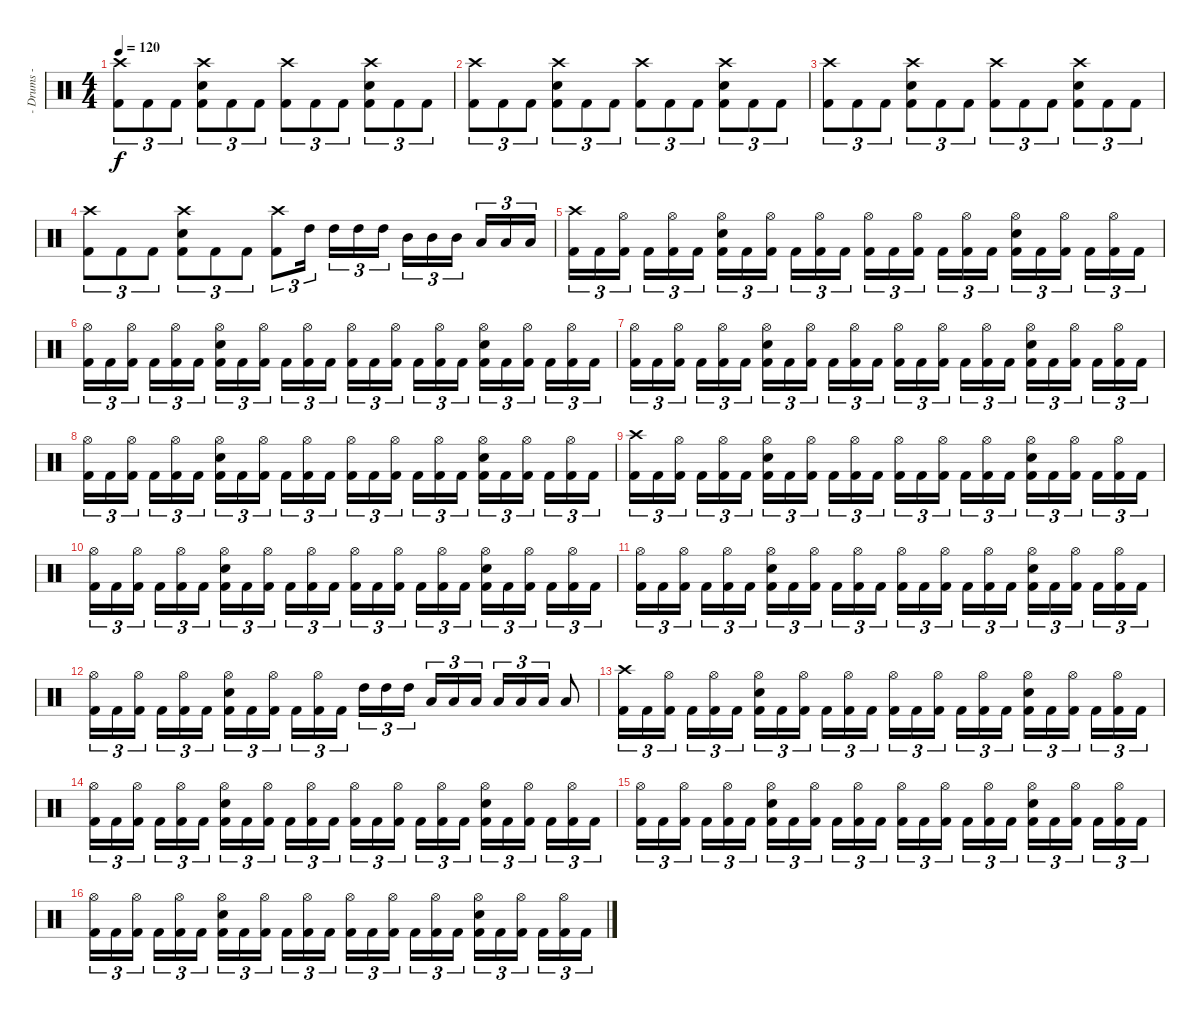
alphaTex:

\track ("- Drums -" "- Drums -") {instrument percussion}
\staff {score}
\articulation defaults
\ts (4 4)
\tempo 120
\clef neutral
\ks c
("Crash high (hit)" "Kick (hit) 2").8{tu (3 2) dy f} "Kick (hit) 2".8{tu (3 2)} "Kick (hit) 2".8{tu (3 2)} ("Crash high (hit)" "Electric Snare (hit)" "Kick (hit) 2").8{tu (3 2)} "Kick (hit) 2".8{tu (3 2)} "Kick (hit) 2".8{tu (3 2)} ("Crash high (hit)" "Kick (hit) 2").8{tu (3 2)} "Kick (hit) 2".8{tu (3 2)} "Kick (hit) 2".8{tu (3 2)} ("Crash high (hit)" "Electric Snare (hit)" "Kick (hit) 2").8{tu (3 2)} "Kick (hit) 2".8{tu (3 2)} "Kick (hit) 2".8{tu (3 2)} |
("Crash high (hit)" "Kick (hit) 2").8{tu (3 2)} "Kick (hit) 2".8{tu (3 2)} "Kick (hit) 2".8{tu (3 2)} ("Crash high (hit)" "Electric Snare (hit)" "Kick (hit) 2").8{tu (3 2)} "Kick (hit) 2".8{tu (3 2)} "Kick (hit) 2".8{tu (3 2)} ("Crash high (hit)" "Kick (hit) 2").8{tu (3 2)} "Kick (hit) 2".8{tu (3 2)} "Kick (hit) 2".8{tu (3 2)} ("Crash high (hit)" "Electric Snare (hit)" "Kick (hit) 2").8{tu (3 2)} "Kick (hit) 2".8{tu (3 2)} "Kick (hit) 2".8{tu (3 2)} |
("Crash high (hit)" "Kick (hit) 2").8{tu (3 2)} "Kick (hit) 2".8{tu (3 2)} "Kick (hit) 2".8{tu (3 2)} ("Crash high (hit)" "Electric Snare (hit)" "Kick (hit) 2").8{tu (3 2)} "Kick (hit) 2".8{tu (3 2)} "Kick (hit) 2".8{tu (3 2)} ("Crash high (hit)" "Kick (hit) 2").8{tu (3 2)} "Kick (hit) 2".8{tu (3 2)} "Kick (hit) 2".8{tu (3 2)} ("Crash high (hit)" "Electric Snare (hit)" "Kick (hit) 2").8{tu (3 2)} "Kick (hit) 2".8{tu (3 2)} "Kick (hit) 2".8{tu (3 2)} |
("Crash high (hit)" "Kick (hit) 2").8{tu (3 2)} "Kick (hit) 2".8{tu (3 2)} "Kick (hit) 2".8{tu (3 2)} ("Crash high (hit)" "Electric Snare (hit)" "Kick (hit) 2").8{tu (3 2)} "Kick (hit) 2".8{tu (3 2)} "Kick (hit) 2".8{tu (3 2)} ("Crash high (hit)" "Kick (hit) 2").8{tu (3 2)} "High Tom (hit)".16{tu (3 2)} "High Tom (hit)".16{tu (3 2)} "High Tom (hit)".16{tu (3 2)} "High Tom (hit)".16{tu (3 2)} "Mid Tom (hit)".16{tu (3 2)} "Mid Tom (hit)".16{tu (3 2)} "Mid Tom (hit)".16{tu (3 2)} "Low Tom (hit)".16{tu (3 2)} "Low Tom (hit)".16{tu (3 2)} "Low Tom (hit)".16{tu (3 2)} |
("Crash high (hit)" "Kick (hit) 2").16{tu (3 2)} "Kick (hit) 2".16{tu (3 2)} ("Hi-Hat (open)" "Kick (hit) 2").16{tu (3 2)} "Kick (hit) 2".16{tu (3 2)} ("Hi-Hat (open)" "Kick (hit) 2").16{tu (3 2)} "Kick (hit) 2".16{tu (3 2)} ("Hi-Hat (open)" "Electric Snare (hit)" "Kick (hit) 2").16{tu (3 2)} "Kick (hit) 2".16{tu (3 2)} ("Hi-Hat (open)" "Kick (hit) 2").16{tu (3 2)} "Kick (hit) 2".16{tu (3 2)} ("Hi-Hat (open)" "Kick (hit) 2").16{tu (3 2)} "Kick (hit) 2".16{tu (3 2)} ("Hi-Hat (open)" "Kick (hit) 2").16{tu (3 2)} "Kick (hit) 2".16{tu (3 2)} ("Hi-Hat (open)" "Kick (hit) 2").16{tu (3 2)} "Kick (hit) 2".16{tu (3 2)} ("Hi-Hat (open)" "Kick (hit) 2").16{tu (3 2)} "Kick (hit) 2".16{tu (3 2)} ("Hi-Hat (open)" "Electric Snare (hit)" "Kick (hit) 2").16{tu (3 2)} "Kick (hit) 2".16{tu (3 2)} ("Hi-Hat (open)" "Kick (hit) 2").16{tu (3 2)} "Kick (hit) 2".16{tu (3 2)} ("Hi-Hat (open)" "Kick (hit) 2").16{tu (3 2)} "Kick (hit) 2".16{tu (3 2)} |
("Hi-Hat (open)" "Kick (hit) 2").16{tu (3 2)} "Kick (hit) 2".16{tu (3 2)} ("Hi-Hat (open)" "Kick (hit) 2").16{tu (3 2)} "Kick (hit) 2".16{tu (3 2)} ("Hi-Hat (open)" "Kick (hit) 2").16{tu (3 2)} "Kick (hit) 2".16{tu (3 2)} ("Hi-Hat (open)" "Electric Snare (hit)" "Kick (hit) 2").16{tu (3 2)} "Kick (hit) 2".16{tu (3 2)} ("Hi-Hat (open)" "Kick (hit) 2").16{tu (3 2)} "Kick (hit) 2".16{tu (3 2)} ("Hi-Hat (open)" "Kick (hit) 2").16{tu (3 2)} "Kick (hit) 2".16{tu (3 2)} ("Hi-Hat (open)" "Kick (hit) 2").16{tu (3 2)} "Kick (hit) 2".16{tu (3 2)} ("Hi-Hat (open)" "Kick (hit) 2").16{tu (3 2)} "Kick (hit) 2".16{tu (3 2)} ("Hi-Hat (open)" "Kick (hit) 2").16{tu (3 2)} "Kick (hit) 2".16{tu (3 2)} ("Hi-Hat (open)" "Electric Snare (hit)" "Kick (hit) 2").16{tu (3 2)} "Kick (hit) 2".16{tu (3 2)} ("Hi-Hat (open)" "Kick (hit) 2").16{tu (3 2)} "Kick (hit) 2".16{tu (3 2)} ("Hi-Hat (open)" "Kick (hit) 2").16{tu (3 2)} "Kick (hit) 2".16{tu (3 2)} |
("Hi-Hat (open)" "Kick (hit) 2").16{tu (3 2)} "Kick (hit) 2".16{tu (3 2)} ("Hi-Hat (open)" "Kick (hit) 2").16{tu (3 2)} "Kick (hit) 2".16{tu (3 2)} ("Hi-Hat (open)" "Kick (hit) 2").16{tu (3 2)} "Kick (hit) 2".16{tu (3 2)} ("Hi-Hat (open)" "Electric Snare (hit)" "Kick (hit) 2").16{tu (3 2)} "Kick (hit) 2".16{tu (3 2)} ("Hi-Hat (open)" "Kick (hit) 2").16{tu (3 2)} "Kick (hit) 2".16{tu (3 2)} ("Hi-Hat (open)" "Kick (hit) 2").16{tu (3 2)} "Kick (hit) 2".16{tu (3 2)} ("Hi-Hat (open)" "Kick (hit) 2").16{tu (3 2)} "Kick (hit) 2".16{tu (3 2)} ("Hi-Hat (open)" "Kick (hit) 2").16{tu (3 2)} "Kick (hit) 2".16{tu (3 2)} ("Hi-Hat (open)" "Kick (hit) 2").16{tu (3 2)} "Kick (hit) 2".16{tu (3 2)} ("Hi-Hat (open)" "Electric Snare (hit)" "Kick (hit) 2").16{tu (3 2)} "Kick (hit) 2".16{tu (3 2)} ("Hi-Hat (open)" "Kick (hit) 2").16{tu (3 2)} "Kick (hit) 2".16{tu (3 2)} ("Hi-Hat (open)" "Kick (hit) 2").16{tu (3 2)} "Kick (hit) 2".16{tu (3 2)} |
("Hi-Hat (open)" "Kick (hit) 2").16{tu (3 2)} "Kick (hit) 2".16{tu (3 2)} ("Hi-Hat (open)" "Kick (hit) 2").16{tu (3 2)} "Kick (hit) 2".16{tu (3 2)} ("Hi-Hat (open)" "Kick (hit) 2").16{tu (3 2)} "Kick (hit) 2".16{tu (3 2)} ("Hi-Hat (open)" "Electric Snare (hit)" "Kick (hit) 2").16{tu (3 2)} "Kick (hit) 2".16{tu (3 2)} ("Hi-Hat (open)" "Kick (hit) 2").16{tu (3 2)} "Kick (hit) 2".16{tu (3 2)} ("Hi-Hat (open)" "Kick (hit) 2").16{tu (3 2)} "Kick (hit) 2".16{tu (3 2)} ("Hi-Hat (open)" "Kick (hit) 2").16{tu (3 2)} "Kick (hit) 2".16{tu (3 2)} ("Hi-Hat (open)" "Kick (hit) 2").16{tu (3 2)} "Kick (hit) 2".16{tu (3 2)} ("Hi-Hat (open)" "Kick (hit) 2").16{tu (3 2)} "Kick (hit) 2".16{tu (3 2)} ("Hi-Hat (open)" "Electric Snare (hit)" "Kick (hit) 2").16{tu (3 2)} "Kick (hit) 2".16{tu (3 2)} ("Hi-Hat (open)" "Kick (hit) 2").16{tu (3 2)} "Kick (hit) 2".16{tu (3 2)} ("Hi-Hat (open)" "Kick (hit) 2").16{tu (3 2)} "Kick (hit) 2".16{tu (3 2)} |
("Crash high (hit)" "Kick (hit) 2").16{tu (3 2)} "Kick (hit) 2".16{tu (3 2)} ("Hi-Hat (open)" "Kick (hit) 2").16{tu (3 2)} "Kick (hit) 2".16{tu (3 2)} ("Hi-Hat (open)" "Kick (hit) 2").16{tu (3 2)} "Kick (hit) 2".16{tu (3 2)} ("Hi-Hat (open)" "Electric Snare (hit)" "Kick (hit) 2").16{tu (3 2)} "Kick (hit) 2".16{tu (3 2)} ("Hi-Hat (open)" "Kick (hit) 2").16{tu (3 2)} "Kick (hit) 2".16{tu (3 2)} ("Hi-Hat (open)" "Kick (hit) 2").16{tu (3 2)} "Kick (hit) 2".16{tu (3 2)} ("Hi-Hat (open)" "Kick (hit) 2").16{tu (3 2)} "Kick (hit) 2".16{tu (3 2)} ("Hi-Hat (open)" "Kick (hit) 2").16{tu (3 2)} "Kick (hit) 2".16{tu (3 2)} ("Hi-Hat (open)" "Kick (hit) 2").16{tu (3 2)} "Kick (hit) 2".16{tu (3 2)} ("Hi-Hat (open)" "Electric Snare (hit)" "Kick (hit) 2").16{tu (3 2)} "Kick (hit) 2".16{tu (3 2)} ("Hi-Hat (open)" "Kick (hit) 2").16{tu (3 2)} "Kick (hit) 2".16{tu (3 2)} ("Hi-Hat (open)" "Kick (hit) 2").16{tu (3 2)} "Kick (hit) 2".16{tu (3 2)} |
("Hi-Hat (open)" "Kick (hit) 2").16{tu (3 2)} "Kick (hit) 2".16{tu (3 2)} ("Hi-Hat (open)" "Kick (hit) 2").16{tu (3 2)} "Kick (hit) 2".16{tu (3 2)} ("Hi-Hat (open)" "Kick (hit) 2").16{tu (3 2)} "Kick (hit) 2".16{tu (3 2)} ("Hi-Hat (open)" "Electric Snare (hit)" "Kick (hit) 2").16{tu (3 2)} "Kick (hit) 2".16{tu (3 2)} ("Hi-Hat (open)" "Kick (hit) 2").16{tu (3 2)} "Kick (hit) 2".16{tu (3 2)} ("Hi-Hat (open)" "Kick (hit) 2").16{tu (3 2)} "Kick (hit) 2".16{tu (3 2)} ("Hi-Hat (open)" "Kick (hit) 2").16{tu (3 2)} "Kick (hit) 2".16{tu (3 2)} ("Hi-Hat (open)" "Kick (hit) 2").16{tu (3 2)} "Kick (hit) 2".16{tu (3 2)} ("Hi-Hat (open)" "Kick (hit) 2").16{tu (3 2)} "Kick (hit) 2".16{tu (3 2)} ("Hi-Hat (open)" "Electric Snare (hit)" "Kick (hit) 2").16{tu (3 2)} "Kick (hit) 2".16{tu (3 2)} ("Hi-Hat (open)" "Kick (hit) 2").16{tu (3 2)} "Kick (hit) 2".16{tu (3 2)} ("Hi-Hat (open)" "Kick (hit) 2").16{tu (3 2)} "Kick (hit) 2".16{tu (3 2)} |
("Hi-Hat (open)" "Kick (hit) 2").16{tu (3 2)} "Kick (hit) 2".16{tu (3 2)} ("Hi-Hat (open)" "Kick (hit) 2").16{tu (3 2)} "Kick (hit) 2".16{tu (3 2)} ("Hi-Hat (open)" "Kick (hit) 2").16{tu (3 2)} "Kick (hit) 2".16{tu (3 2)} ("Hi-Hat (open)" "Electric Snare (hit)" "Kick (hit) 2").16{tu (3 2)} "Kick (hit) 2".16{tu (3 2)} ("Hi-Hat (open)" "Kick (hit) 2").16{tu (3 2)} "Kick (hit) 2".16{tu (3 2)} ("Hi-Hat (open)" "Kick (hit) 2").16{tu (3 2)} "Kick (hit) 2".16{tu (3 2)} ("Hi-Hat (open)" "Kick (hit) 2").16{tu (3 2)} "Kick (hit) 2".16{tu (3 2)} ("Hi-Hat (open)" "Kick (hit) 2").16{tu (3 2)} "Kick (hit) 2".16{tu (3 2)} ("Hi-Hat (open)" "Kick (hit) 2").16{tu (3 2)} "Kick (hit) 2".16{tu (3 2)} ("Hi-Hat (open)" "Electric Snare (hit)" "Kick (hit) 2").16{tu (3 2)} "Kick (hit) 2".16{tu (3 2)} ("Hi-Hat (open)" "Kick (hit) 2").16{tu (3 2)} "Kick (hit) 2".16{tu (3 2)} ("Hi-Hat (open)" "Kick (hit) 2").16{tu (3 2)} "Kick (hit) 2".16{tu (3 2)} |
("Hi-Hat (open)" "Kick (hit) 2").16{tu (3 2)} "Kick (hit) 2".16{tu (3 2)} ("Hi-Hat (open)" "Kick (hit) 2").16{tu (3 2)} "Kick (hit) 2".16{tu (3 2)} ("Hi-Hat (open)" "Kick (hit) 2").16{tu (3 2)} "Kick (hit) 2".16{tu (3 2)} ("Hi-Hat (open)" "Electric Snare (hit)" "Kick (hit) 2").16{tu (3 2)} "Kick (hit) 2".16{tu (3 2)} ("Hi-Hat (open)" "Kick (hit) 2").16{tu (3 2)} "Kick (hit) 2".16{tu (3 2)} ("Hi-Hat (open)" "Kick (hit) 2").16{tu (3 2)} "Kick (hit) 2".16{tu (3 2)} "High Tom (hit)".16{tu (3 2)} "High Tom (hit)".16{tu (3 2)} "High Tom (hit)".16{tu (3 2)} "Low Tom (hit)".16{tu (3 2)} "Low Tom (hit)".16{tu (3 2)} "Low Tom (hit)".16{tu (3 2)} "Low Floor Tom (hit)".16{tu (3 2)} "Low Floor Tom (hit)".16{tu (3 2)} "Low Floor Tom (hit)".16{tu (3 2)} "Low Floor Tom (hit)".8 |
("Crash high (hit)" "Kick (hit) 2").16{tu (3 2)} "Kick (hit) 2".16{tu (3 2)} ("Hi-Hat (open)" "Kick (hit) 2").16{tu (3 2)} "Kick (hit) 2".16{tu (3 2)} ("Hi-Hat (open)" "Kick (hit) 2").16{tu (3 2)} "Kick (hit) 2".16{tu (3 2)} ("Hi-Hat (open)" "Electric Snare (hit)" "Kick (hit) 2").16{tu (3 2)} "Kick (hit) 2".16{tu (3 2)} ("Hi-Hat (open)" "Kick (hit) 2").16{tu (3 2)} "Kick (hit) 2".16{tu (3 2)} ("Hi-Hat (open)" "Kick (hit) 2").16{tu (3 2)} "Kick (hit) 2".16{tu (3 2)} ("Hi-Hat (open)" "Kick (hit) 2").16{tu (3 2)} "Kick (hit) 2".16{tu (3 2)} ("Hi-Hat (open)" "Kick (hit) 2").16{tu (3 2)} "Kick (hit) 2".16{tu (3 2)} ("Hi-Hat (open)" "Kick (hit) 2").16{tu (3 2)} "Kick (hit) 2".16{tu (3 2)} ("Hi-Hat (open)" "Electric Snare (hit)" "Kick (hit) 2").16{tu (3 2)} "Kick (hit) 2".16{tu (3 2)} ("Hi-Hat (open)" "Kick (hit) 2").16{tu (3 2)} "Kick (hit) 2".16{tu (3 2)} ("Hi-Hat (open)" "Kick (hit) 2").16{tu (3 2)} "Kick (hit) 2".16{tu (3 2)} |
("Hi-Hat (open)" "Kick (hit) 2").16{tu (3 2)} "Kick (hit) 2".16{tu (3 2)} ("Hi-Hat (open)" "Kick (hit) 2").16{tu (3 2)} "Kick (hit) 2".16{tu (3 2)} ("Hi-Hat (open)" "Kick (hit) 2").16{tu (3 2)} "Kick (hit) 2".16{tu (3 2)} ("Hi-Hat (open)" "Electric Snare (hit)" "Kick (hit) 2").16{tu (3 2)} "Kick (hit) 2".16{tu (3 2)} ("Hi-Hat (open)" "Kick (hit) 2").16{tu (3 2)} "Kick (hit) 2".16{tu (3 2)} ("Hi-Hat (open)" "Kick (hit) 2").16{tu (3 2)} "Kick (hit) 2".16{tu (3 2)} ("Hi-Hat (open)" "Kick (hit) 2").16{tu (3 2)} "Kick (hit) 2".16{tu (3 2)} ("Hi-Hat (open)" "Kick (hit) 2").16{tu (3 2)} "Kick (hit) 2".16{tu (3 2)} ("Hi-Hat (open)" "Kick (hit) 2").16{tu (3 2)} "Kick (hit) 2".16{tu (3 2)} ("Hi-Hat (open)" "Electric Snare (hit)" "Kick (hit) 2").16{tu (3 2)} "Kick (hit) 2".16{tu (3 2)} ("Hi-Hat (open)" "Kick (hit) 2").16{tu (3 2)} "Kick (hit) 2".16{tu (3 2)} ("Hi-Hat (open)" "Kick (hit) 2").16{tu (3 2)} "Kick (hit) 2".16{tu (3 2)} |
("Hi-Hat (open)" "Kick (hit) 2").16{tu (3 2)} "Kick (hit) 2".16{tu (3 2)} ("Hi-Hat (open)" "Kick (hit) 2").16{tu (3 2)} "Kick (hit) 2".16{tu (3 2)} ("Hi-Hat (open)" "Kick (hit) 2").16{tu (3 2)} "Kick (hit) 2".16{tu (3 2)} ("Hi-Hat (open)" "Electric Snare (hit)" "Kick (hit) 2").16{tu (3 2)} "Kick (hit) 2".16{tu (3 2)} ("Hi-Hat (open)" "Kick (hit) 2").16{tu (3 2)} "Kick (hit) 2".16{tu (3 2)} ("Hi-Hat (open)" "Kick (hit) 2").16{tu (3 2)} "Kick (hit) 2".16{tu (3 2)} ("Hi-Hat (open)" "Kick (hit) 2").16{tu (3 2)} "Kick (hit) 2".16{tu (3 2)} ("Hi-Hat (open)" "Kick (hit) 2").16{tu (3 2)} "Kick (hit) 2".16{tu (3 2)} ("Hi-Hat (open)" "Kick (hit) 2").16{tu (3 2)} "Kick (hit) 2".16{tu (3 2)} ("Hi-Hat (open)" "Electric Snare (hit)" "Kick (hit) 2").16{tu (3 2)} "Kick (hit) 2".16{tu (3 2)} ("Hi-Hat (open)" "Kick (hit) 2").16{tu (3 2)} "Kick (hit) 2".16{tu (3 2)} ("Hi-Hat (open)" "Kick (hit) 2").16{tu (3 2)} "Kick (hit) 2".16{tu (3 2)} |
("Hi-Hat (open)" "Kick (hit) 2").16{tu (3 2)} "Kick (hit) 2".16{tu (3 2)} ("Hi-Hat (open)" "Kick (hit) 2").16{tu (3 2)} "Kick (hit) 2".16{tu (3 2)} ("Hi-Hat (open)" "Kick (hit) 2").16{tu (3 2)} "Kick (hit) 2".16{tu (3 2)} ("Hi-Hat (open)" "Electric Snare (hit)" "Kick (hit) 2").16{tu (3 2)} "Kick (hit) 2".16{tu (3 2)} ("Hi-Hat (open)" "Kick (hit) 2").16{tu (3 2)} "Kick (hit) 2".16{tu (3 2)} ("Hi-Hat (open)" "Kick (hit) 2").16{tu (3 2)} "Kick (hit) 2".16{tu (3 2)} ("Hi-Hat (open)" "Kick (hit) 2").16{tu (3 2)} "Kick (hit) 2".16{tu (3 2)} ("Hi-Hat (open)" "Kick (hit) 2").16{tu (3 2)} "Kick (hit) 2".16{tu (3 2)} ("Hi-Hat (open)" "Kick (hit) 2").16{tu (3 2)} "Kick (hit) 2".16{tu (3 2)} ("Hi-Hat (open)" "Electric Snare (hit)" "Kick (hit) 2").16{tu (3 2)} "Kick (hit) 2".16{tu (3 2)} ("Hi-Hat (open)" "Kick (hit) 2").16{tu (3 2)} "Kick (hit) 2".16{tu (3 2)} ("Hi-Hat (open)" "Kick (hit) 2").16{tu (3 2)} "Kick (hit) 2".16{tu (3 2)}
